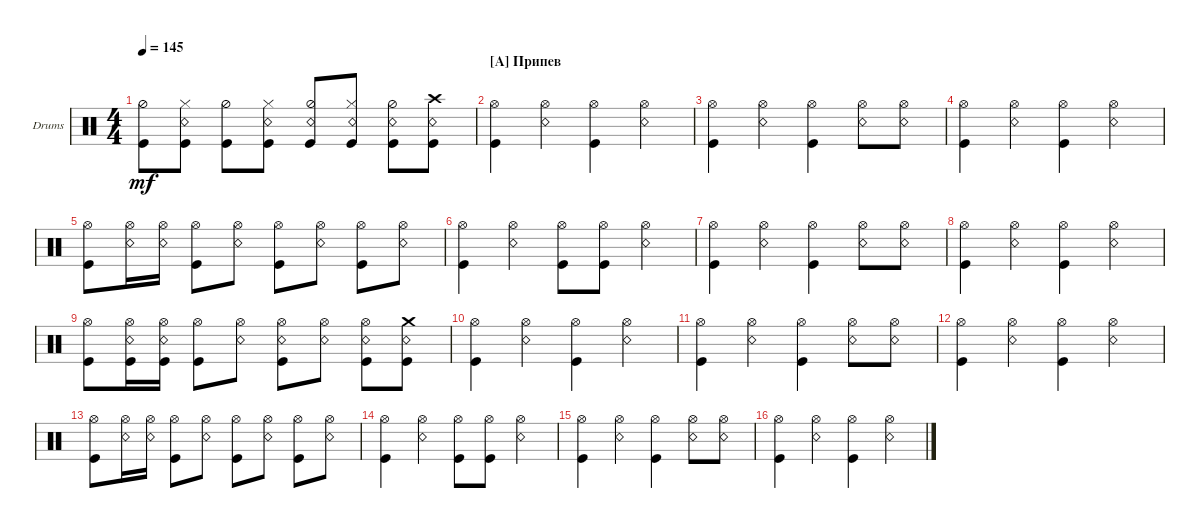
\defaultSystemsLayout 4
\bracketExtendMode groupsimilarinstruments
\firstSystemTrackNameOrientation horizontal
\otherSystemsTrackNameOrientation horizontal
\track ("Drumkit" "Drums") {instrument percussion}
\staff {score}
\articulation defaults
\ts (4 4)
\tempo 145
\clef neutral
\ks c
("Kick (hit)" "Hi-Hat (half)").8{dy mf} ("Kick (hit)" "Hi-Hat (closed)" "Snare (rim shot)").8 ("Kick (hit)" "Hi-Hat (half)").8 ("Kick (hit)" "Hi-Hat (closed)" "Snare (rim shot)").8 ("Kick (hit)" "Hi-Hat (half)" "Snare (rim shot)").8 ("Kick (hit)" "Hi-Hat (closed)" "Snare (rim shot)").8 ("Kick (hit)" "Hi-Hat (half)" "Snare (rim shot)").8 ("Snare (rim shot)" "Crash high (hit)" "Kick (hit)").8 |
\section ("A" "Припев")
("Kick (hit)" "Hi-Hat (open)").4 ("Snare (rim shot)" "Hi-Hat (open)").4 ("Kick (hit)" "Hi-Hat (open)").4 ("Snare (rim shot)" "Hi-Hat (open)").4 |
("Kick (hit)" "Hi-Hat (open)").4 ("Snare (rim shot)" "Hi-Hat (open)").4 ("Kick (hit)" "Hi-Hat (open)").4 ("Snare (rim shot)" "Hi-Hat (open)").8 ("Snare (rim shot)" "Hi-Hat (open)").8 |
("Kick (hit)" "Hi-Hat (open)").4 ("Snare (rim shot)" "Hi-Hat (open)").4 ("Kick (hit)" "Hi-Hat (open)").4 ("Snare (rim shot)" "Hi-Hat (open)").4 |
("Kick (hit)" "Hi-Hat (open)").8 ("Snare (rim shot)" "Hi-Hat (open)").16 ("Snare (rim shot)" "Hi-Hat (open)").16 ("Kick (hit)" "Hi-Hat (open)").8 ("Snare (rim shot)" "Hi-Hat (open)").8 ("Kick (hit)" "Hi-Hat (open)").8 ("Snare (rim shot)" "Hi-Hat (open)").8 ("Kick (hit)" "Hi-Hat (open)").8 ("Snare (rim shot)" "Hi-Hat (open)").8 |
("Kick (hit)" "Hi-Hat (open)").4 ("Snare (rim shot)" "Hi-Hat (open)").4 ("Kick (hit)" "Hi-Hat (open)").8 ("Kick (hit)" "Hi-Hat (open)").8 ("Snare (rim shot)" "Hi-Hat (open)").4 |
("Kick (hit)" "Hi-Hat (open)").4 ("Snare (rim shot)" "Hi-Hat (open)").4 ("Kick (hit)" "Hi-Hat (open)").4 ("Snare (rim shot)" "Hi-Hat (open)").8 ("Snare (rim shot)" "Hi-Hat (open)").8 |
("Kick (hit)" "Hi-Hat (open)").4 ("Snare (rim shot)" "Hi-Hat (open)").4 ("Kick (hit)" "Hi-Hat (open)").4 ("Snare (rim shot)" "Hi-Hat (open)").4 |
("Kick (hit)" "Hi-Hat (open)").8 ("Snare (rim shot)" "Hi-Hat (open)" "Kick (hit)").16 ("Snare (rim shot)" "Hi-Hat (open)" "Kick (hit)").16 ("Kick (hit)" "Hi-Hat (open)").8 ("Snare (rim shot)" "Hi-Hat (open)").8 ("Kick (hit)" "Snare (rim shot)" "Hi-Hat (open)").8 ("Snare (rim shot)" "Hi-Hat (open)").8 ("Kick (hit)" "Snare (rim shot)" "Hi-Hat (open)").8 ("Snare (rim shot)" "Crash medium (hit)" "Kick (hit)").8 |
("Kick (hit)" "Hi-Hat (open)").4 ("Snare (rim shot)" "Hi-Hat (open)").4 ("Kick (hit)" "Hi-Hat (open)").4 ("Snare (rim shot)" "Hi-Hat (open)").4 |
("Kick (hit)" "Hi-Hat (open)").4 ("Snare (rim shot)" "Hi-Hat (open)").4 ("Kick (hit)" "Hi-Hat (open)").4 ("Snare (rim shot)" "Hi-Hat (open)").8 ("Snare (rim shot)" "Hi-Hat (open)").8 |
("Kick (hit)" "Hi-Hat (open)").4 ("Snare (rim shot)" "Hi-Hat (open)").4 ("Kick (hit)" "Hi-Hat (open)").4 ("Snare (rim shot)" "Hi-Hat (open)").4 |
("Kick (hit)" "Hi-Hat (open)").8 ("Snare (rim shot)" "Hi-Hat (open)").16 ("Snare (rim shot)" "Hi-Hat (open)").16 ("Kick (hit)" "Hi-Hat (open)").8 ("Snare (rim shot)" "Hi-Hat (open)").8 ("Kick (hit)" "Hi-Hat (open)").8 ("Snare (rim shot)" "Hi-Hat (open)").8 ("Kick (hit)" "Hi-Hat (open)").8 ("Snare (rim shot)" "Hi-Hat (open)").8 |
("Kick (hit)" "Hi-Hat (open)").4 ("Snare (rim shot)" "Hi-Hat (open)").4 ("Kick (hit)" "Hi-Hat (open)").8 ("Kick (hit)" "Hi-Hat (open)").8 ("Snare (rim shot)" "Hi-Hat (open)").4 |
("Kick (hit)" "Hi-Hat (open)").4 ("Snare (rim shot)" "Hi-Hat (open)").4 ("Kick (hit)" "Hi-Hat (open)").4 ("Snare (rim shot)" "Hi-Hat (open)").8 ("Snare (rim shot)" "Hi-Hat (open)").8 |
("Kick (hit)" "Hi-Hat (open)").4 ("Snare (rim shot)" "Hi-Hat (open)").4 ("Kick (hit)" "Hi-Hat (open)").4 ("Snare (rim shot)" "Hi-Hat (open)").4
